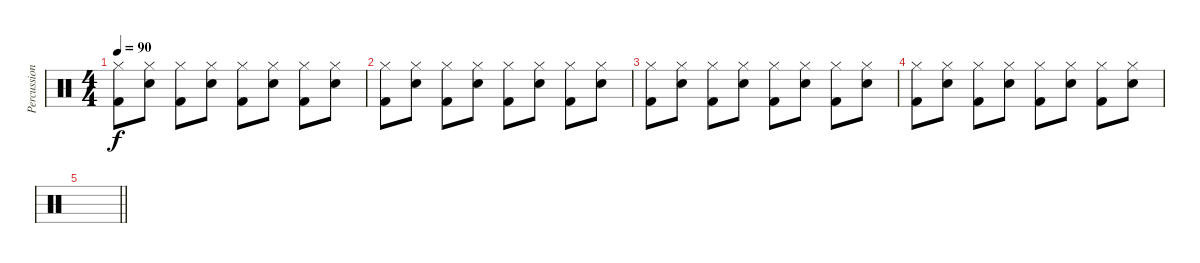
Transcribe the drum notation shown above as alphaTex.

\track ("Percussions" "Percussion") {instrument percussion}
\staff {score}
\articulation defaults
\ts (4 4)
\tempo 90
\clef neutral
\ks c
("Hi-Hat (closed)" "Kick (hit) 2").8{dy f} ("Hi-Hat (closed)" "Electric Snare (hit)").8 ("Hi-Hat (closed)" "Kick (hit) 2").8 ("Hi-Hat (closed)" "Electric Snare (hit)").8 ("Hi-Hat (closed)" "Kick (hit) 2").8 ("Hi-Hat (closed)" "Electric Snare (hit)").8 ("Hi-Hat (closed)" "Kick (hit) 2").8 ("Hi-Hat (closed)" "Electric Snare (hit)").8 |
("Hi-Hat (closed)" "Kick (hit) 2").8 ("Hi-Hat (closed)" "Electric Snare (hit)").8 ("Hi-Hat (closed)" "Kick (hit) 2").8 ("Hi-Hat (closed)" "Electric Snare (hit)").8 ("Hi-Hat (closed)" "Kick (hit) 2").8 ("Hi-Hat (closed)" "Electric Snare (hit)").8 ("Hi-Hat (closed)" "Kick (hit) 2").8 ("Hi-Hat (closed)" "Electric Snare (hit)").8 |
("Hi-Hat (closed)" "Kick (hit) 2").8 ("Hi-Hat (closed)" "Electric Snare (hit)").8 ("Hi-Hat (closed)" "Kick (hit) 2").8 ("Hi-Hat (closed)" "Electric Snare (hit)").8 ("Hi-Hat (closed)" "Kick (hit) 2").8 ("Hi-Hat (closed)" "Electric Snare (hit)").8 ("Hi-Hat (closed)" "Kick (hit) 2").8 ("Hi-Hat (closed)" "Electric Snare (hit)").8 |
("Hi-Hat (closed)" "Kick (hit) 2").8 ("Hi-Hat (closed)" "Electric Snare (hit)").8 ("Hi-Hat (closed)" "Kick (hit) 2").8 ("Hi-Hat (closed)" "Electric Snare (hit)").8 ("Hi-Hat (closed)" "Kick (hit) 2").8 ("Hi-Hat (closed)" "Electric Snare (hit)").8 ("Hi-Hat (closed)" "Kick (hit) 2").8 ("Hi-Hat (closed)" "Electric Snare (hit)").8 |
\barLineRight lightlight
